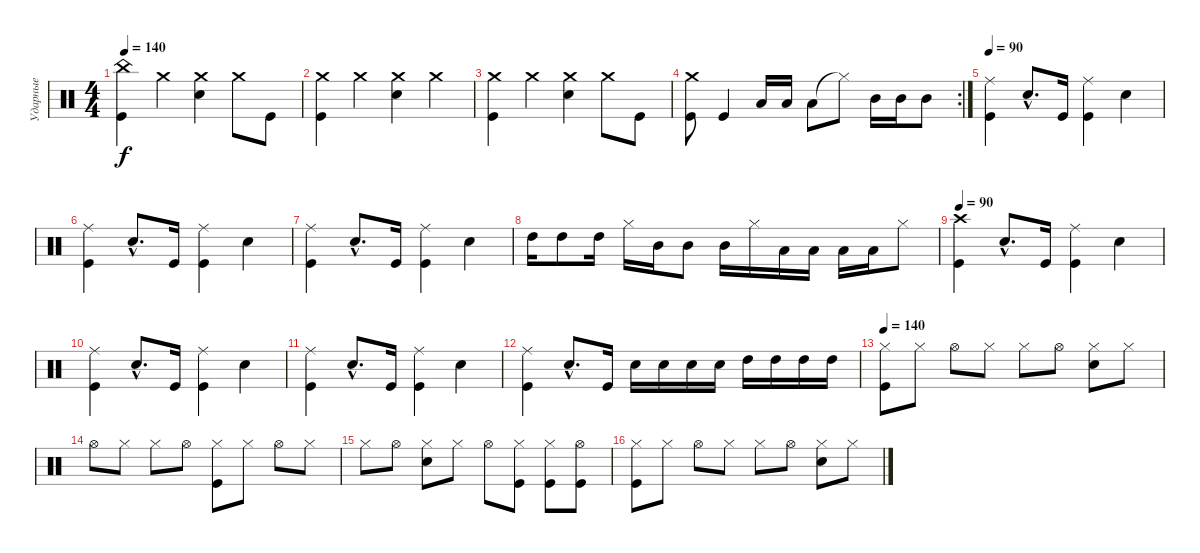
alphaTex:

\track ("Ударные" "Ударные") {instrument percussion}
\staff {score}
\articulation defaults
\ts (4 4)
\tempo 140
\clef neutral
\ks c
("Kick (hit)" "China (hit)").4{dy f} "Crash medium (hit)".4 ("Snare (hit) 2" "Crash medium (hit)").4 "Crash medium (hit)".8 "Kick (hit)".8 |
("Kick (hit)" "Crash medium (hit)").4 "Crash medium (hit)".4 ("Snare (hit) 2" "Crash medium (hit)").4 "Crash medium (hit)".4 |
("Kick (hit)" "Crash medium (hit)").4 "Crash medium (hit)".4 ("Snare (hit) 2" "Crash medium (hit)").4 "Crash medium (hit)".8 "Kick (hit)".8 |
\rc 2
("Kick (hit)" "Crash medium (hit)").8 "Kick (hit)".4 "Low Tom (hit)".16 "Low Tom (hit)".16 "Low Tom (hit)".8 "Hi-Hat (closed)"{t}.8 "Mid Tom (hit)".16 "Mid Tom (hit)".16 "Mid Tom (hit)".8 |
\tempo 90
("Kick (hit)" "Ride (middle)").4 "Snare (hit) 2"{hac}.8{d} "Kick (hit)".16 ("Kick (hit)" "Ride (middle)").4 "Snare (hit) 2".4 |
("Kick (hit)" "Ride (middle)").4 "Snare (hit) 2"{hac}.8{d} "Kick (hit)".16 ("Kick (hit)" "Ride (middle)").4 "Snare (hit) 2".4 |
("Kick (hit)" "Ride (middle)").4 "Snare (hit) 2"{hac}.8{d} "Kick (hit)".16 ("Kick (hit)" "Ride (middle)").4 "Snare (hit) 2".4 |
"High Tom (hit)".16 "High Tom (hit)".8 "High Tom (hit)".16 "Hi-Hat (closed)".16 "Mid Tom (hit)".16 "Mid Tom (hit)".8 "Mid Tom (hit)".16 "Hi-Hat (closed)".16 "Low Tom (hit)".16 "Low Tom (hit)".16 "Low Tom (hit)".16 "Low Tom (hit)".16 "Hi-Hat (closed)".8 |
\tempo 90
("Kick (hit)" "Crash high (hit)").4 "Snare (hit) 2"{hac}.8{d} "Kick (hit)".16 ("Kick (hit)" "Ride (middle)").4 "Snare (hit) 2".4 |
("Kick (hit)" "Ride (middle)").4 "Snare (hit) 2"{hac}.8{d} "Kick (hit)".16 ("Kick (hit)" "Ride (middle)").4 "Snare (hit) 2".4 |
("Kick (hit)" "Ride (middle)").4 "Snare (hit) 2"{hac}.8{d} "Kick (hit)".16 ("Kick (hit)" "Ride (middle)").4 "Snare (hit) 2".4 |
("Kick (hit)" "Ride (middle)").4 "Snare (hit) 2"{hac}.8{d} "Kick (hit)".16 "Snare (hit) 2".16 "Snare (hit) 2".16 "Snare (hit) 2".16 "Snare (hit) 2".16 "High Tom (hit)".16 "High Tom (hit)".16 "High Tom (hit)".16 "High Tom (hit)".16 |
\tempo 140
("Kick (hit)" "Hi-Hat (closed)").8 "Hi-Hat (closed)".8 "Hi-Hat (open)".8 "Hi-Hat (closed)".8 "Hi-Hat (closed)".8 "Hi-Hat (open)".8 ("Snare (hit) 2" "Hi-Hat (closed)").8 "Hi-Hat (closed)".8 |
"Hi-Hat (open)".8 "Hi-Hat (closed)".8 "Hi-Hat (closed)".8 "Hi-Hat (open)".8 ("Kick (hit)" "Hi-Hat (closed)").8 "Hi-Hat (closed)".8 "Hi-Hat (open)".8 "Hi-Hat (closed)".8 |
"Hi-Hat (closed)".8 "Hi-Hat (open)".8 ("Snare (hit) 2" "Hi-Hat (closed)").8 "Hi-Hat (closed)".8 "Hi-Hat (open)".8 ("Kick (hit)" "Hi-Hat (closed)").8 ("Kick (hit)" "Hi-Hat (closed)").8 ("Kick (hit)" "Hi-Hat (open)").8 |
("Kick (hit)" "Hi-Hat (closed)").8 "Hi-Hat (closed)".8 "Hi-Hat (open)".8 "Hi-Hat (closed)".8 "Hi-Hat (closed)".8 "Hi-Hat (open)".8 ("Snare (hit) 2" "Hi-Hat (closed)").8 "Hi-Hat (closed)".8
